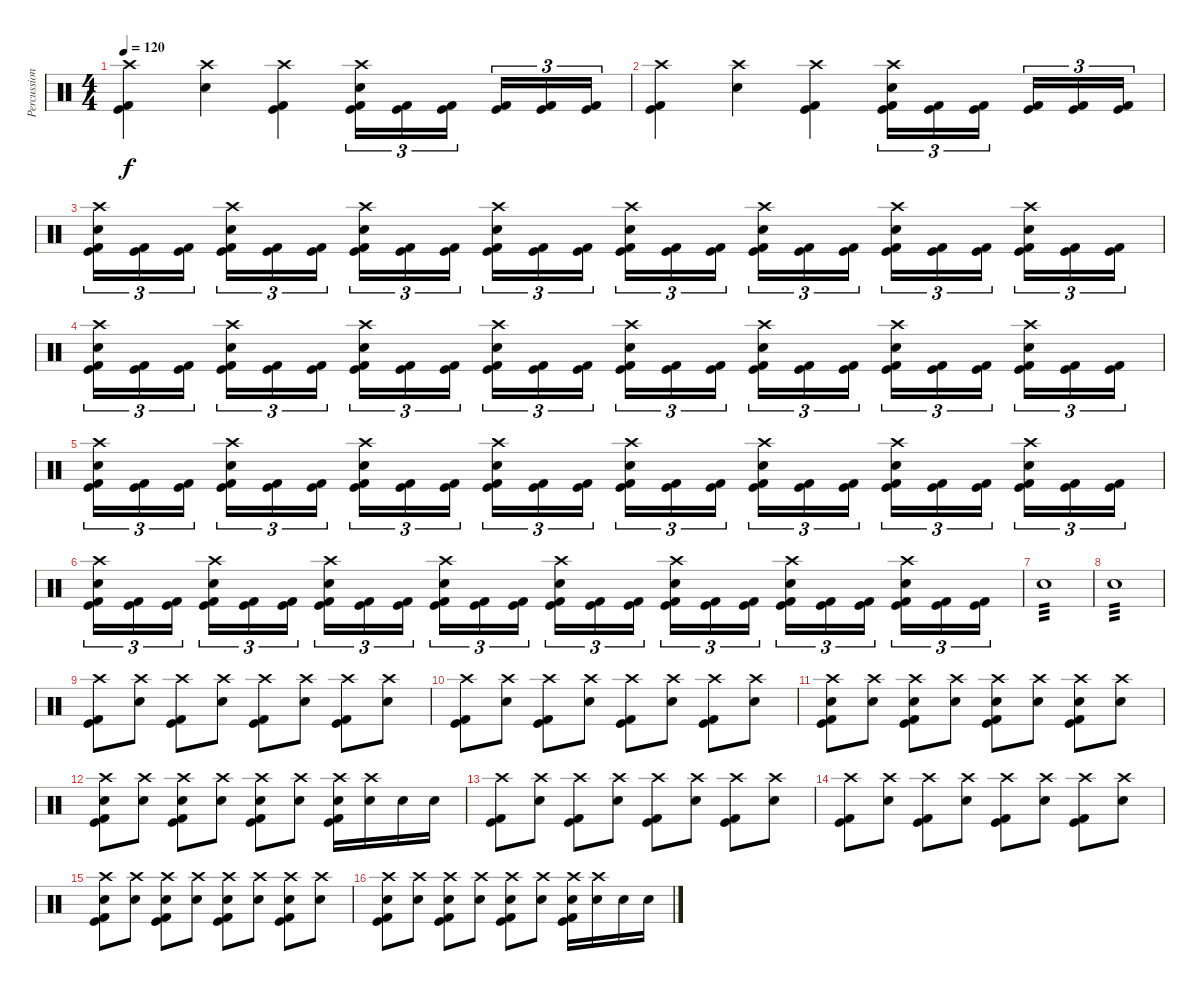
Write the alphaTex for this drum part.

\track ("Percussion" "Percussion") {instrument percussion}
\staff {score}
\articulation defaults
\ts (4 4)
\tempo 120
\clef neutral
\ks c
("Crash high (hit)" "Kick (hit) 2" "Kick (hit)").4{dy f} ("Crash high (hit)" "Electric Snare (hit)").4 ("Crash high (hit)" "Kick (hit) 2" "Kick (hit)").4 ("Crash high (hit)" "Electric Snare (hit)" "Kick (hit) 2" "Kick (hit)").16{tu (3 2)} ("Kick (hit) 2" "Kick (hit)").16{tu (3 2)} ("Kick (hit) 2" "Kick (hit)").16{tu (3 2) beam splitsecondary} ("Kick (hit) 2" "Kick (hit)").16{tu (3 2)} ("Kick (hit) 2" "Kick (hit)").16{tu (3 2)} ("Kick (hit) 2" "Kick (hit)").16{tu (3 2)} |
("Crash high (hit)" "Kick (hit) 2" "Kick (hit)").4 ("Crash high (hit)" "Electric Snare (hit)").4 ("Crash high (hit)" "Kick (hit) 2" "Kick (hit)").4 ("Crash high (hit)" "Electric Snare (hit)" "Kick (hit) 2" "Kick (hit)").16{tu (3 2)} ("Kick (hit) 2" "Kick (hit)").16{tu (3 2)} ("Kick (hit) 2" "Kick (hit)").16{tu (3 2) beam splitsecondary} ("Kick (hit) 2" "Kick (hit)").16{tu (3 2)} ("Kick (hit) 2" "Kick (hit)").16{tu (3 2)} ("Kick (hit) 2" "Kick (hit)").16{tu (3 2)} |
("Crash high (hit)" "Electric Snare (hit)" "Kick (hit)" "Kick (hit) 2").16{tu (3 2)} ("Kick (hit)" "Kick (hit) 2").16{tu (3 2)} ("Kick (hit)" "Kick (hit) 2").16{tu (3 2) beam splitsecondary} ("Crash high (hit)" "Electric Snare (hit)" "Kick (hit)" "Kick (hit) 2").16{tu (3 2)} ("Kick (hit)" "Kick (hit) 2").16{tu (3 2)} ("Kick (hit)" "Kick (hit) 2").16{tu (3 2)} ("Crash high (hit)" "Electric Snare (hit)" "Kick (hit)" "Kick (hit) 2").16{tu (3 2)} ("Kick (hit)" "Kick (hit) 2").16{tu (3 2)} ("Kick (hit)" "Kick (hit) 2").16{tu (3 2) beam splitsecondary} ("Crash high (hit)" "Electric Snare (hit)" "Kick (hit)" "Kick (hit) 2").16{tu (3 2)} ("Kick (hit)" "Kick (hit) 2").16{tu (3 2)} ("Kick (hit)" "Kick (hit) 2").16{tu (3 2)} ("Crash high (hit)" "Electric Snare (hit)" "Kick (hit)" "Kick (hit) 2").16{tu (3 2)} ("Kick (hit)" "Kick (hit) 2").16{tu (3 2)} ("Kick (hit)" "Kick (hit) 2").16{tu (3 2) beam splitsecondary} ("Crash high (hit)" "Electric Snare (hit)" "Kick (hit)" "Kick (hit) 2").16{tu (3 2)} ("Kick (hit)" "Kick (hit) 2").16{tu (3 2)} ("Kick (hit)" "Kick (hit) 2").16{tu (3 2)} ("Crash high (hit)" "Electric Snare (hit)" "Kick (hit)" "Kick (hit) 2").16{tu (3 2)} ("Kick (hit)" "Kick (hit) 2").16{tu (3 2)} ("Kick (hit)" "Kick (hit) 2").16{tu (3 2) beam splitsecondary} ("Crash high (hit)" "Electric Snare (hit)" "Kick (hit)" "Kick (hit) 2").16{tu (3 2)} ("Kick (hit)" "Kick (hit) 2").16{tu (3 2)} ("Kick (hit)" "Kick (hit) 2").16{tu (3 2)} |
("Crash high (hit)" "Electric Snare (hit)" "Kick (hit)" "Kick (hit) 2").16{tu (3 2)} ("Kick (hit)" "Kick (hit) 2").16{tu (3 2)} ("Kick (hit)" "Kick (hit) 2").16{tu (3 2) beam splitsecondary} ("Crash high (hit)" "Electric Snare (hit)" "Kick (hit)" "Kick (hit) 2").16{tu (3 2)} ("Kick (hit)" "Kick (hit) 2").16{tu (3 2)} ("Kick (hit)" "Kick (hit) 2").16{tu (3 2)} ("Crash high (hit)" "Electric Snare (hit)" "Kick (hit)" "Kick (hit) 2").16{tu (3 2)} ("Kick (hit)" "Kick (hit) 2").16{tu (3 2)} ("Kick (hit)" "Kick (hit) 2").16{tu (3 2) beam splitsecondary} ("Crash high (hit)" "Electric Snare (hit)" "Kick (hit)" "Kick (hit) 2").16{tu (3 2)} ("Kick (hit)" "Kick (hit) 2").16{tu (3 2)} ("Kick (hit)" "Kick (hit) 2").16{tu (3 2)} ("Crash high (hit)" "Electric Snare (hit)" "Kick (hit)" "Kick (hit) 2").16{tu (3 2)} ("Kick (hit)" "Kick (hit) 2").16{tu (3 2)} ("Kick (hit)" "Kick (hit) 2").16{tu (3 2) beam splitsecondary} ("Crash high (hit)" "Electric Snare (hit)" "Kick (hit)" "Kick (hit) 2").16{tu (3 2)} ("Kick (hit)" "Kick (hit) 2").16{tu (3 2)} ("Kick (hit)" "Kick (hit) 2").16{tu (3 2)} ("Crash high (hit)" "Electric Snare (hit)" "Kick (hit)" "Kick (hit) 2").16{tu (3 2)} ("Kick (hit)" "Kick (hit) 2").16{tu (3 2)} ("Kick (hit)" "Kick (hit) 2").16{tu (3 2) beam splitsecondary} ("Crash high (hit)" "Electric Snare (hit)" "Kick (hit)" "Kick (hit) 2").16{tu (3 2)} ("Kick (hit)" "Kick (hit) 2").16{tu (3 2)} ("Kick (hit)" "Kick (hit) 2").16{tu (3 2)} |
("Crash high (hit)" "Electric Snare (hit)" "Kick (hit)" "Kick (hit) 2").16{tu (3 2)} ("Kick (hit)" "Kick (hit) 2").16{tu (3 2)} ("Kick (hit)" "Kick (hit) 2").16{tu (3 2) beam splitsecondary} ("Crash high (hit)" "Electric Snare (hit)" "Kick (hit)" "Kick (hit) 2").16{tu (3 2)} ("Kick (hit)" "Kick (hit) 2").16{tu (3 2)} ("Kick (hit)" "Kick (hit) 2").16{tu (3 2)} ("Crash high (hit)" "Electric Snare (hit)" "Kick (hit)" "Kick (hit) 2").16{tu (3 2)} ("Kick (hit)" "Kick (hit) 2").16{tu (3 2)} ("Kick (hit)" "Kick (hit) 2").16{tu (3 2) beam splitsecondary} ("Crash high (hit)" "Electric Snare (hit)" "Kick (hit)" "Kick (hit) 2").16{tu (3 2)} ("Kick (hit)" "Kick (hit) 2").16{tu (3 2)} ("Kick (hit)" "Kick (hit) 2").16{tu (3 2)} ("Crash high (hit)" "Electric Snare (hit)" "Kick (hit)" "Kick (hit) 2").16{tu (3 2)} ("Kick (hit)" "Kick (hit) 2").16{tu (3 2)} ("Kick (hit)" "Kick (hit) 2").16{tu (3 2) beam splitsecondary} ("Crash high (hit)" "Electric Snare (hit)" "Kick (hit)" "Kick (hit) 2").16{tu (3 2)} ("Kick (hit)" "Kick (hit) 2").16{tu (3 2)} ("Kick (hit)" "Kick (hit) 2").16{tu (3 2)} ("Crash high (hit)" "Electric Snare (hit)" "Kick (hit)" "Kick (hit) 2").16{tu (3 2)} ("Kick (hit)" "Kick (hit) 2").16{tu (3 2)} ("Kick (hit)" "Kick (hit) 2").16{tu (3 2) beam splitsecondary} ("Crash high (hit)" "Electric Snare (hit)" "Kick (hit)" "Kick (hit) 2").16{tu (3 2)} ("Kick (hit)" "Kick (hit) 2").16{tu (3 2)} ("Kick (hit)" "Kick (hit) 2").16{tu (3 2)} |
("Crash high (hit)" "Electric Snare (hit)" "Kick (hit)" "Kick (hit) 2").16{tu (3 2)} ("Kick (hit)" "Kick (hit) 2").16{tu (3 2)} ("Kick (hit)" "Kick (hit) 2").16{tu (3 2) beam splitsecondary} ("Crash high (hit)" "Electric Snare (hit)" "Kick (hit)" "Kick (hit) 2").16{tu (3 2)} ("Kick (hit)" "Kick (hit) 2").16{tu (3 2)} ("Kick (hit)" "Kick (hit) 2").16{tu (3 2)} ("Crash high (hit)" "Electric Snare (hit)" "Kick (hit)" "Kick (hit) 2").16{tu (3 2)} ("Kick (hit)" "Kick (hit) 2").16{tu (3 2)} ("Kick (hit)" "Kick (hit) 2").16{tu (3 2) beam splitsecondary} ("Crash high (hit)" "Electric Snare (hit)" "Kick (hit)" "Kick (hit) 2").16{tu (3 2)} ("Kick (hit)" "Kick (hit) 2").16{tu (3 2)} ("Kick (hit)" "Kick (hit) 2").16{tu (3 2)} ("Crash high (hit)" "Electric Snare (hit)" "Kick (hit)" "Kick (hit) 2").16{tu (3 2)} ("Kick (hit)" "Kick (hit) 2").16{tu (3 2)} ("Kick (hit)" "Kick (hit) 2").16{tu (3 2) beam splitsecondary} ("Crash high (hit)" "Electric Snare (hit)" "Kick (hit)" "Kick (hit) 2").16{tu (3 2)} ("Kick (hit)" "Kick (hit) 2").16{tu (3 2)} ("Kick (hit)" "Kick (hit) 2").16{tu (3 2)} ("Crash high (hit)" "Electric Snare (hit)" "Kick (hit)" "Kick (hit) 2").16{tu (3 2)} ("Kick (hit)" "Kick (hit) 2").16{tu (3 2)} ("Kick (hit)" "Kick (hit) 2").16{tu (3 2) beam splitsecondary} ("Crash high (hit)" "Electric Snare (hit)" "Kick (hit)" "Kick (hit) 2").16{tu (3 2)} ("Kick (hit)" "Kick (hit) 2").16{tu (3 2)} ("Kick (hit)" "Kick (hit) 2").16{tu (3 2)} |
"Electric Snare (hit)".1{tp 3} |
"Electric Snare (hit)".1{tp 3} |
("Crash high (hit)" "Kick (hit) 2" "Kick (hit)").8 ("Electric Snare (hit)" "Crash high (hit)").8 ("Crash high (hit)" "Kick (hit) 2" "Kick (hit)").8 ("Electric Snare (hit)" "Crash high (hit)").8 ("Crash high (hit)" "Kick (hit) 2" "Kick (hit)").8 ("Electric Snare (hit)" "Crash high (hit)").8 ("Crash high (hit)" "Kick (hit) 2" "Kick (hit)").8 ("Electric Snare (hit)" "Crash high (hit)").8 |
("Crash high (hit)" "Kick (hit) 2" "Kick (hit)").8 ("Electric Snare (hit)" "Crash high (hit)").8 ("Crash high (hit)" "Kick (hit) 2" "Kick (hit)").8 ("Electric Snare (hit)" "Crash high (hit)").8 ("Crash high (hit)" "Kick (hit) 2" "Kick (hit)").8 ("Electric Snare (hit)" "Crash high (hit)").8 ("Crash high (hit)" "Kick (hit) 2" "Kick (hit)").8 ("Electric Snare (hit)" "Crash high (hit)").8 |
("Electric Snare (hit)" "Crash high (hit)" "Kick (hit) 2" "Kick (hit)").8 ("Electric Snare (hit)" "Crash high (hit)").8 ("Electric Snare (hit)" "Crash high (hit)" "Kick (hit) 2" "Kick (hit)").8 ("Electric Snare (hit)" "Crash high (hit)").8 ("Electric Snare (hit)" "Crash high (hit)" "Kick (hit) 2" "Kick (hit)").8 ("Electric Snare (hit)" "Crash high (hit)").8 ("Electric Snare (hit)" "Crash high (hit)" "Kick (hit) 2" "Kick (hit)").8 ("Electric Snare (hit)" "Crash high (hit)").8 |
("Electric Snare (hit)" "Crash high (hit)" "Kick (hit) 2" "Kick (hit)").8 ("Electric Snare (hit)" "Crash high (hit)").8 ("Electric Snare (hit)" "Crash high (hit)" "Kick (hit) 2" "Kick (hit)").8 ("Electric Snare (hit)" "Crash high (hit)").8 ("Electric Snare (hit)" "Crash high (hit)" "Kick (hit) 2" "Kick (hit)").8 ("Electric Snare (hit)" "Crash high (hit)").8 ("Electric Snare (hit)" "Crash high (hit)" "Kick (hit) 2" "Kick (hit)").16 ("Electric Snare (hit)" "Crash high (hit)").16 "Electric Snare (hit)".16 "Electric Snare (hit)".16 |
("Crash high (hit)" "Kick (hit) 2" "Kick (hit)").8 ("Electric Snare (hit)" "Crash high (hit)").8 ("Crash high (hit)" "Kick (hit) 2" "Kick (hit)").8 ("Electric Snare (hit)" "Crash high (hit)").8 ("Crash high (hit)" "Kick (hit) 2" "Kick (hit)").8 ("Electric Snare (hit)" "Crash high (hit)").8 ("Crash high (hit)" "Kick (hit) 2" "Kick (hit)").8 ("Electric Snare (hit)" "Crash high (hit)").8 |
("Crash high (hit)" "Kick (hit) 2" "Kick (hit)").8 ("Electric Snare (hit)" "Crash high (hit)").8 ("Crash high (hit)" "Kick (hit) 2" "Kick (hit)").8 ("Electric Snare (hit)" "Crash high (hit)").8 ("Crash high (hit)" "Kick (hit) 2" "Kick (hit)").8 ("Electric Snare (hit)" "Crash high (hit)").8 ("Crash high (hit)" "Kick (hit) 2" "Kick (hit)").8 ("Electric Snare (hit)" "Crash high (hit)").8 |
("Electric Snare (hit)" "Crash high (hit)" "Kick (hit) 2" "Kick (hit)").8 ("Electric Snare (hit)" "Crash high (hit)").8 ("Electric Snare (hit)" "Crash high (hit)" "Kick (hit) 2" "Kick (hit)").8 ("Electric Snare (hit)" "Crash high (hit)").8 ("Electric Snare (hit)" "Crash high (hit)" "Kick (hit) 2" "Kick (hit)").8 ("Electric Snare (hit)" "Crash high (hit)").8 ("Electric Snare (hit)" "Crash high (hit)" "Kick (hit) 2" "Kick (hit)").8 ("Electric Snare (hit)" "Crash high (hit)").8 |
("Electric Snare (hit)" "Crash high (hit)" "Kick (hit) 2" "Kick (hit)").8 ("Electric Snare (hit)" "Crash high (hit)").8 ("Electric Snare (hit)" "Crash high (hit)" "Kick (hit) 2" "Kick (hit)").8 ("Electric Snare (hit)" "Crash high (hit)").8 ("Electric Snare (hit)" "Crash high (hit)" "Kick (hit) 2" "Kick (hit)").8 ("Electric Snare (hit)" "Crash high (hit)").8 ("Electric Snare (hit)" "Crash high (hit)" "Kick (hit) 2" "Kick (hit)").16 ("Electric Snare (hit)" "Crash high (hit)").16 "Electric Snare (hit)".16 "Electric Snare (hit)".16
